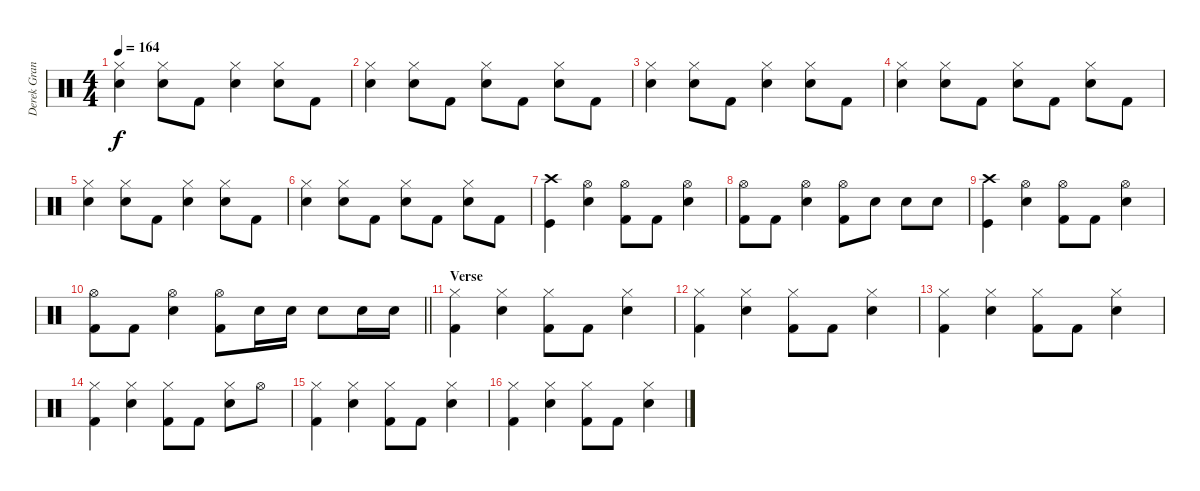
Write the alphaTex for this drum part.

\track ("Derek Grant - Drums" "Derek Gran") {instrument percussion}
\staff {score}
\articulation defaults
\ts (4 4)
\tempo 164
\clef neutral
\ks c
("Hi-Hat (closed)" "Snare (hit) 2").4{dy f} ("Hi-Hat (closed)" "Snare (hit) 2").8 "Kick (hit) 2".8 ("Hi-Hat (closed)" "Snare (hit) 2").4 ("Hi-Hat (closed)" "Snare (hit) 2").8 "Kick (hit) 2".8 |
("Hi-Hat (closed)" "Snare (hit) 2").4 ("Hi-Hat (closed)" "Snare (hit) 2").8 "Kick (hit) 2".8 ("Hi-Hat (closed)" "Snare (hit) 2").8 "Kick (hit) 2".8 ("Hi-Hat (closed)" "Snare (hit) 2").8 "Kick (hit) 2".8 |
("Hi-Hat (closed)" "Snare (hit) 2").4 ("Hi-Hat (closed)" "Snare (hit) 2").8 "Kick (hit) 2".8 ("Hi-Hat (closed)" "Snare (hit) 2").4 ("Hi-Hat (closed)" "Snare (hit) 2").8 "Kick (hit) 2".8 |
("Hi-Hat (closed)" "Snare (hit) 2").4 ("Hi-Hat (closed)" "Snare (hit) 2").8 "Kick (hit) 2".8 ("Hi-Hat (closed)" "Snare (hit) 2").8 "Kick (hit) 2".8 ("Hi-Hat (closed)" "Snare (hit) 2").8 "Kick (hit) 2".8 |
("Hi-Hat (closed)" "Snare (hit) 2").4 ("Hi-Hat (closed)" "Snare (hit) 2").8 "Kick (hit) 2".8 ("Hi-Hat (closed)" "Snare (hit) 2").4 ("Hi-Hat (closed)" "Snare (hit) 2").8 "Kick (hit) 2".8 |
("Hi-Hat (closed)" "Snare (hit) 2").4 ("Hi-Hat (closed)" "Snare (hit) 2").8 "Kick (hit) 2".8 ("Hi-Hat (closed)" "Snare (hit) 2").8 "Kick (hit) 2".8 ("Hi-Hat (closed)" "Snare (hit) 2").8 "Kick (hit) 2".8 |
("Crash high (hit)" "Kick (hit)").4 ("Snare (hit) 2" "Hi-Hat (open)").4 ("Kick (hit) 2" "Hi-Hat (open)").8 "Kick (hit) 2".8 ("Snare (hit) 2" "Hi-Hat (open)").4 |
("Kick (hit) 2" "Hi-Hat (open)").8 "Kick (hit) 2".8 ("Snare (hit) 2" "Hi-Hat (open)").4 ("Kick (hit) 2" "Hi-Hat (open)").8 "Snare (hit) 2".8 "Snare (hit) 2".8 "Snare (hit) 2".8 |
("Crash high (hit)" "Kick (hit)").4 ("Snare (hit) 2" "Hi-Hat (open)").4 ("Kick (hit) 2" "Hi-Hat (open)").8 "Kick (hit) 2".8 ("Snare (hit) 2" "Hi-Hat (open)").4 |
\barLineRight lightlight
("Kick (hit) 2" "Hi-Hat (open)").8 "Kick (hit) 2".8 ("Snare (hit) 2" "Hi-Hat (open)").4 ("Kick (hit) 2" "Hi-Hat (open)").8 "Snare (hit) 2".16 "Snare (hit) 2".16 "Snare (hit) 2".8 "Snare (hit) 2".16 "Snare (hit) 2".16 |
\section ("" "Verse")
("Hi-Hat (closed)" "Kick (hit) 2").4 ("Hi-Hat (closed)" "Snare (hit) 2").4 ("Hi-Hat (closed)" "Kick (hit) 2").8 "Kick (hit) 2".8 ("Hi-Hat (closed)" "Snare (hit) 2").4 |
("Hi-Hat (closed)" "Kick (hit) 2").4 ("Hi-Hat (closed)" "Snare (hit) 2").4 ("Hi-Hat (closed)" "Kick (hit) 2").8 "Kick (hit) 2".8 ("Hi-Hat (closed)" "Snare (hit) 2").4 |
("Hi-Hat (closed)" "Kick (hit) 2").4 ("Hi-Hat (closed)" "Snare (hit) 2").4 ("Hi-Hat (closed)" "Kick (hit) 2").8 "Kick (hit) 2".8 ("Hi-Hat (closed)" "Snare (hit) 2").4 |
("Hi-Hat (closed)" "Kick (hit) 2").4 ("Hi-Hat (closed)" "Snare (hit) 2").4 ("Hi-Hat (closed)" "Kick (hit) 2").8 "Kick (hit) 2".8 ("Hi-Hat (closed)" "Snare (hit) 2").8 "Hi-Hat (open)".8 |
("Hi-Hat (closed)" "Kick (hit) 2").4 ("Hi-Hat (closed)" "Snare (hit) 2").4 ("Hi-Hat (closed)" "Kick (hit) 2").8 "Kick (hit) 2".8 ("Hi-Hat (closed)" "Snare (hit) 2").4 |
("Hi-Hat (closed)" "Kick (hit) 2").4 ("Hi-Hat (closed)" "Snare (hit) 2").4 ("Hi-Hat (closed)" "Kick (hit) 2").8 "Kick (hit) 2".8 ("Hi-Hat (closed)" "Snare (hit) 2").4
